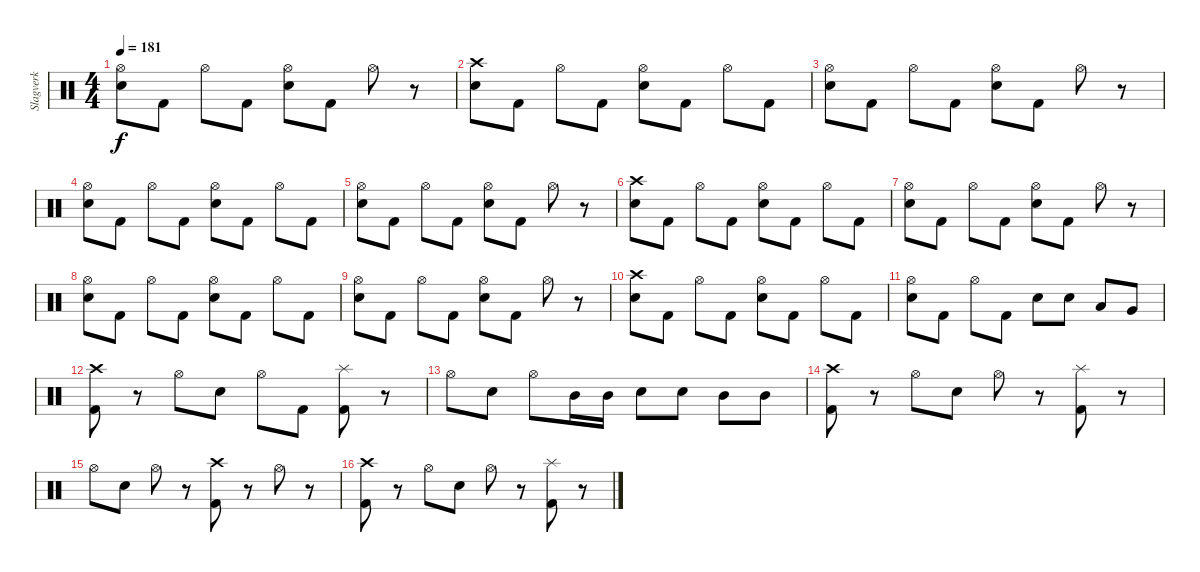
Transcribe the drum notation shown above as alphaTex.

\track ("Slagverk" "Slagverk") {instrument percussion}
\staff {score}
\articulation defaults
\ts (4 4)
\tempo 181
\clef neutral
\ks c
("Hi-Hat (open)" "Electric Snare (hit)").8{dy f} "Kick (hit) 2".8 "Hi-Hat (open)".8 "Kick (hit) 2".8 ("Hi-Hat (open)" "Electric Snare (hit)").8 "Kick (hit) 2".8 "Hi-Hat (open)".8 r.8 |
("Crash high (hit)" "Electric Snare (hit)").8{volume 16 balance 8} "Kick (hit) 2".8 "Hi-Hat (open)".8 "Kick (hit) 2".8 ("Hi-Hat (open)" "Electric Snare (hit)").8 "Kick (hit) 2".8 "Hi-Hat (open)".8 "Kick (hit) 2".8 |
("Hi-Hat (open)" "Electric Snare (hit)").8 "Kick (hit) 2".8 "Hi-Hat (open)".8 "Kick (hit) 2".8 ("Hi-Hat (open)" "Electric Snare (hit)").8 "Kick (hit) 2".8 "Hi-Hat (open)".8 r.8 |
("Hi-Hat (open)" "Electric Snare (hit)").8{volume 16 balance 8} "Kick (hit) 2".8 "Hi-Hat (open)".8 "Kick (hit) 2".8 ("Hi-Hat (open)" "Electric Snare (hit)").8 "Kick (hit) 2".8 "Hi-Hat (open)".8 "Kick (hit) 2".8 |
("Hi-Hat (open)" "Electric Snare (hit)").8 "Kick (hit) 2".8 "Hi-Hat (open)".8 "Kick (hit) 2".8 ("Hi-Hat (open)" "Electric Snare (hit)").8 "Kick (hit) 2".8 "Hi-Hat (open)".8 r.8 |
("Crash high (hit)" "Electric Snare (hit)").8{volume 16 balance 8} "Kick (hit) 2".8 "Hi-Hat (open)".8 "Kick (hit) 2".8 ("Hi-Hat (open)" "Electric Snare (hit)").8 "Kick (hit) 2".8 "Hi-Hat (open)".8 "Kick (hit) 2".8 |
("Hi-Hat (open)" "Electric Snare (hit)").8 "Kick (hit) 2".8 "Hi-Hat (open)".8 "Kick (hit) 2".8 ("Hi-Hat (open)" "Electric Snare (hit)").8 "Kick (hit) 2".8 "Hi-Hat (open)".8 r.8 |
("Hi-Hat (open)" "Electric Snare (hit)").8{volume 16 balance 8} "Kick (hit) 2".8 "Hi-Hat (open)".8 "Kick (hit) 2".8 ("Hi-Hat (open)" "Electric Snare (hit)").8 "Kick (hit) 2".8 "Hi-Hat (open)".8 "Kick (hit) 2".8 |
("Hi-Hat (open)" "Electric Snare (hit)").8 "Kick (hit) 2".8 "Hi-Hat (open)".8 "Kick (hit) 2".8 ("Hi-Hat (open)" "Electric Snare (hit)").8 "Kick (hit) 2".8 "Hi-Hat (open)".8 r.8 |
("Crash high (hit)" "Electric Snare (hit)").8{volume 16 balance 8} "Kick (hit) 2".8 "Hi-Hat (open)".8 "Kick (hit) 2".8 ("Hi-Hat (open)" "Electric Snare (hit)").8 "Kick (hit) 2".8 "Hi-Hat (open)".8 "Kick (hit) 2".8 |
("Hi-Hat (open)" "Electric Snare (hit)").8 "Kick (hit) 2".8 "Hi-Hat (open)".8 "Kick (hit) 2".8 "Electric Snare (hit)".8 "Electric Snare (hit)".8 "Low Tom (hit)".8 "Very Low Tom (hit)".8 |
("Crash high (hit)" "Kick (hit) 2").8 r.8 "Hi-Hat (open)".8 "Electric Snare (hit)".8 "Hi-Hat (open)".8 "Kick (hit) 2".8 ("Kick (hit) 2" "Splash (hit)").8 r.8 |
"Hi-Hat (open)".8 "Electric Snare (hit)".8 "Hi-Hat (open)".8 "Mid Tom (hit)".16 "Mid Tom (hit)".16 "Electric Snare (hit)".8 "Electric Snare (hit)".8 "Mid Tom (hit)".8 "Mid Tom (hit)".8 |
("Crash high (hit)" "Kick (hit) 2").8 r.8 "Hi-Hat (open)".8 "Electric Snare (hit)".8 "Hi-Hat (open)".8 r.8 ("Splash (hit)" "Kick (hit) 2").8 r.8 |
"Hi-Hat (open)".8 "Electric Snare (hit)".8 "Hi-Hat (open)".8 r.8 ("Crash high (hit)" "Kick (hit) 2").8 r.8 "Hi-Hat (open)".8 r.8 |
("Crash high (hit)" "Kick (hit) 2").8 r.8 "Hi-Hat (open)".8 "Electric Snare (hit)".8 "Hi-Hat (open)".8 r.8 ("Splash (hit)" "Kick (hit) 2").8 r.8
